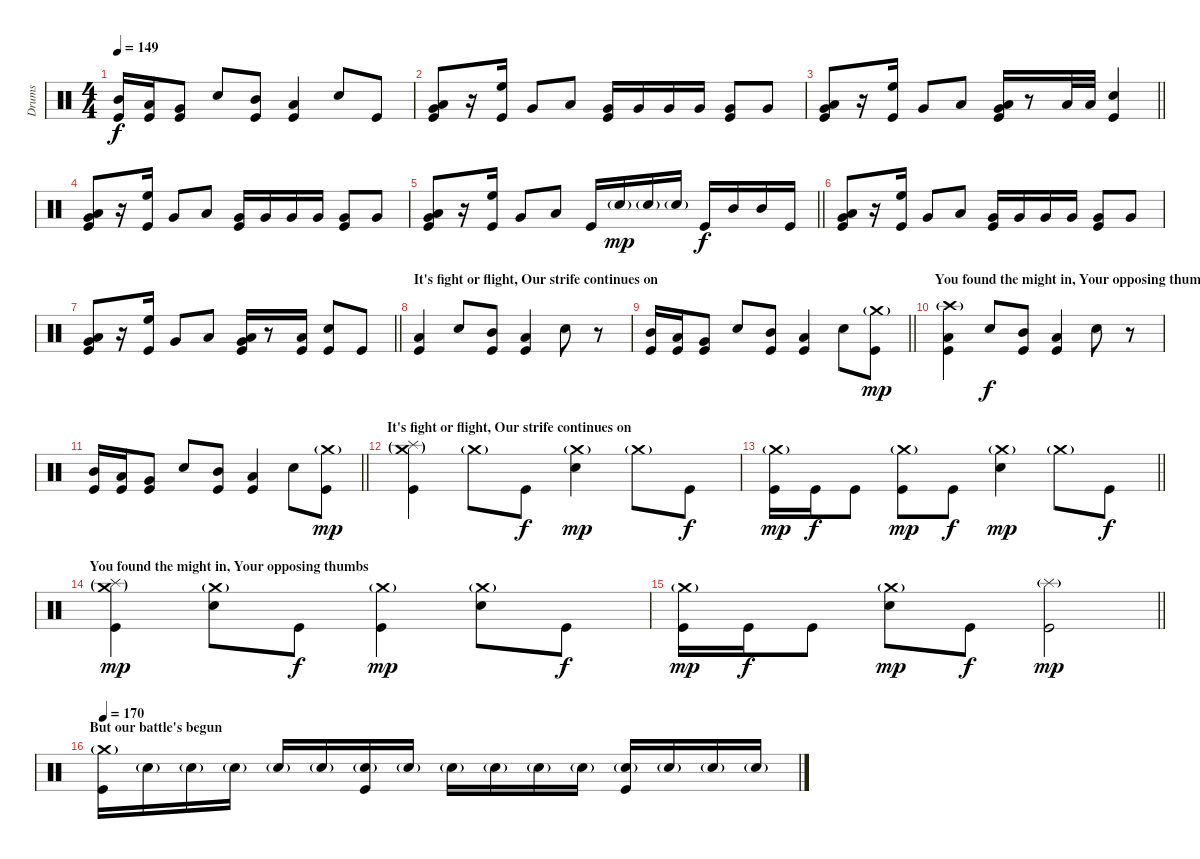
\track ("Drums" "Drums") {instrument percussion}
\staff {score}
\articulation defaults
\ts (4 4)
\tempo 149
\clef neutral
\ks c
("Mid Tom (hit)" "Kick (hit)").16{dy f} ("Low Tom (hit)" "Kick (hit)").16 ("Very Low Tom (hit)" "Kick (hit)").8 "Snare (hit) 2".8 ("Mid Tom (hit)" "Kick (hit)").8 ("Low Tom (hit)" "Kick (hit)").4 "Snare (hit) 2".8 "Kick (hit)".8 |
("Very Low Tom (hit)" "Low Tom (hit)" "Kick (hit)").8 r.16 ("High Floor Tom (hit)" "Kick (hit)").16 "Very Low Tom (hit)".8 "Low Tom (hit)".8 ("Very Low Tom (hit)" "Kick (hit)").16 "Very Low Tom (hit)".16 "Very Low Tom (hit)".16 "Very Low Tom (hit)".16 ("Very Low Tom (hit)" "Kick (hit)").8 "Very Low Tom (hit)".8 |
\barLineRight lightlight
("Very Low Tom (hit)" "Low Tom (hit)" "Kick (hit)").8 r.16 ("High Floor Tom (hit)" "Kick (hit)").16 "Very Low Tom (hit)".8 "Low Tom (hit)".8 ("Very Low Tom (hit)" "Low Tom (hit)" "Kick (hit)").16 r.8 "Low Tom (hit)".32 "Low Tom (hit)".32 ("Snare (hit) 2" "Kick (hit)").4 |
("Very Low Tom (hit)" "Low Tom (hit)" "Kick (hit)").8 r.16 ("High Floor Tom (hit)" "Kick (hit)").16 "Very Low Tom (hit)".8 "Low Tom (hit)".8 ("Very Low Tom (hit)" "Kick (hit)").16 "Very Low Tom (hit)".16 "Very Low Tom (hit)".16 "Very Low Tom (hit)".16 ("Very Low Tom (hit)" "Kick (hit)").8 "Very Low Tom (hit)".8 |
\barLineRight lightlight
("Very Low Tom (hit)" "Low Tom (hit)" "Kick (hit)").8 r.16 ("High Floor Tom (hit)" "Kick (hit)").16 "Very Low Tom (hit)".8 "Low Tom (hit)".8 "Kick (hit)".16 "Snare (hit) 2"{g}.16{dy mp} "Snare (hit) 2"{g}.16 "Snare (hit) 2"{g}.16 "Kick (hit)".16{dy f} "Mid Tom (hit)".16 "Mid Tom (hit)".16 "Kick (hit)".16 |
("Very Low Tom (hit)" "Low Tom (hit)" "Kick (hit)").8 r.16 ("High Floor Tom (hit)" "Kick (hit)").16 "Very Low Tom (hit)".8 "Low Tom (hit)".8 ("Very Low Tom (hit)" "Kick (hit)").16 "Very Low Tom (hit)".16 "Very Low Tom (hit)".16 "Very Low Tom (hit)".16 ("Very Low Tom (hit)" "Kick (hit)").8 "Very Low Tom (hit)".8 |
\barLineRight lightlight
("Very Low Tom (hit)" "Low Tom (hit)" "Kick (hit)").8 r.16 ("High Floor Tom (hit)" "Kick (hit)").16 "Very Low Tom (hit)".8 "Low Tom (hit)".8 ("Very Low Tom (hit)" "Low Tom (hit)" "Kick (hit)").16 r.8 ("Low Tom (hit)" "Kick (hit)").16 ("Snare (hit) 2" "Kick (hit)").8 "Kick (hit)".8 |
\section ("" "It's fight or flight, Our strife continues on ")
("Low Tom (hit)" "Kick (hit)").4 "Snare (hit) 2".8 ("Mid Tom (hit)" "Kick (hit)").8 ("Low Tom (hit)" "Kick (hit)").4 "Snare (hit) 2".8 r.8 |
\barLineRight lightlight
("Mid Tom (hit)" "Kick (hit)").16 ("Low Tom (hit)" "Kick (hit)").16 ("Very Low Tom (hit)" "Kick (hit)").8 "Snare (hit) 2".8 ("Mid Tom (hit)" "Kick (hit)").8 ("Low Tom (hit)" "Kick (hit)").4 "Snare (hit) 2".8 ("Crash medium (hit)"{g} "Kick (hit)").8{dy mp} |
\section ("" "You found the might in, Your opposing thumbs")
("Crash high (hit)"{g} "Low Tom (hit)" "Kick (hit)").4 "Snare (hit) 2".8{dy f} ("Mid Tom (hit)" "Kick (hit)").8 ("Low Tom (hit)" "Kick (hit)").4 "Snare (hit) 2".8 r.8 |
\barLineRight lightlight
("Mid Tom (hit)" "Kick (hit)").16 ("Low Tom (hit)" "Kick (hit)").16 ("Very Low Tom (hit)" "Kick (hit)").8 "Snare (hit) 2".8 ("Mid Tom (hit)" "Kick (hit)").8 ("Low Tom (hit)" "Kick (hit)").4 "Snare (hit) 2".8 ("Crash medium (hit)"{g} "Kick (hit)").8{dy mp} |
\section ("" "It's fight or flight, Our strife continues on ")
("Crash medium (hit)"{g} "Splash (hit)"{g} "Kick (hit)").4 "Crash medium (hit)"{g}.8 "Kick (hit)".8{dy f} ("Crash medium (hit)"{g} "Snare (hit) 2").4{dy mp} "Crash medium (hit)"{g}.8 "Kick (hit)".8{dy f} |
\barLineRight lightlight
("Crash medium (hit)"{g} "Kick (hit)").16{dy mp} "Kick (hit)".16{dy f} "Kick (hit)".8 ("Crash medium (hit)"{g} "Kick (hit)").8{dy mp} "Kick (hit)".8{dy f} ("Crash medium (hit)"{g} "Snare (hit) 2").4{dy mp} "Crash medium (hit)"{g}.8 "Kick (hit)".8{dy f} |
\section ("" "You found the might in, Your opposing thumbs")
("Crash medium (hit)"{g} "Splash (hit)"{g} "Kick (hit)").4{dy mp} ("Crash medium (hit)"{g} "Snare (hit) 2").8 "Kick (hit)".8{dy f} ("Crash medium (hit)"{g} "Kick (hit)").4{dy mp} ("Crash medium (hit)"{g} "Snare (hit) 2").8 "Kick (hit)".8{dy f} |
\barLineRight lightlight
("Crash medium (hit)"{g} "Kick (hit)").16{dy mp} "Kick (hit)".16{dy f} "Kick (hit)".8 ("Crash medium (hit)"{g} "Snare (hit) 2").8{dy mp} "Kick (hit)".8{dy f} ("Splash (hit)"{g} "Kick (hit)").2{dy mp} |
\section ("" "But our battle's begun ")
\tempo 170
("Crash medium (hit)"{g} "Kick (hit)").16 "Snare (hit) 2"{g}.16 "Snare (hit) 2"{g}.16 "Snare (hit) 2"{g}.16 "Snare (hit) 2"{g}.16 "Snare (hit) 2"{g}.16 ("Snare (hit) 2"{g} "Kick (hit)").16 "Snare (hit) 2"{g}.16 "Snare (hit) 2"{g}.16 "Snare (hit) 2"{g}.16 "Snare (hit) 2"{g}.16 "Snare (hit) 2"{g}.16 ("Snare (hit) 2"{g} "Kick (hit)").16 "Snare (hit) 2"{g}.16 "Snare (hit) 2"{g}.16 "Snare (hit) 2"{g}.16
